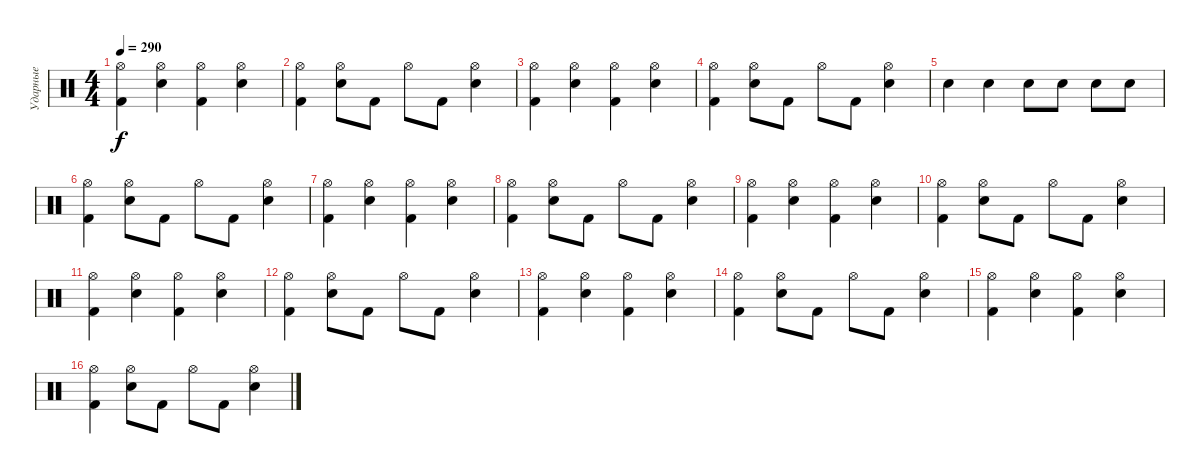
\track ("Ударные" "Ударные") {instrument percussion}
\staff {score}
\articulation defaults
\ts (4 4)
\tempo 290
\clef neutral
\ks c
("Kick (hit) 2" "Hi-Hat (open)").4{dy f} ("Snare (hit) 2" "Hi-Hat (open)").4 ("Kick (hit) 2" "Hi-Hat (open)").4 ("Snare (hit) 2" "Hi-Hat (open)").4 |
("Kick (hit) 2" "Hi-Hat (open)").4 ("Snare (hit) 2" "Hi-Hat (open)").8 "Kick (hit) 2".8 "Hi-Hat (open)".8 "Kick (hit) 2".8 ("Snare (hit) 2" "Hi-Hat (open)").4 |
("Kick (hit) 2" "Hi-Hat (open)").4 ("Snare (hit) 2" "Hi-Hat (open)").4 ("Kick (hit) 2" "Hi-Hat (open)").4 ("Snare (hit) 2" "Hi-Hat (open)").4 |
("Kick (hit) 2" "Hi-Hat (open)").4 ("Snare (hit) 2" "Hi-Hat (open)").8 "Kick (hit) 2".8 "Hi-Hat (open)".8 "Kick (hit) 2".8 ("Snare (hit) 2" "Hi-Hat (open)").4 |
"Snare (hit) 2".4 "Snare (hit) 2".4 "Snare (hit) 2".8 "Snare (hit) 2".8 "Snare (hit) 2".8 "Snare (hit) 2".8 |
("Kick (hit) 2" "Hi-Hat (open)").4 ("Snare (hit) 2" "Hi-Hat (open)").8 "Kick (hit) 2".8 "Hi-Hat (open)".8 "Kick (hit) 2".8 ("Snare (hit) 2" "Hi-Hat (open)").4 |
("Kick (hit) 2" "Hi-Hat (open)").4 ("Snare (hit) 2" "Hi-Hat (open)").4 ("Kick (hit) 2" "Hi-Hat (open)").4 ("Snare (hit) 2" "Hi-Hat (open)").4 |
("Kick (hit) 2" "Hi-Hat (open)").4 ("Snare (hit) 2" "Hi-Hat (open)").8 "Kick (hit) 2".8 "Hi-Hat (open)".8 "Kick (hit) 2".8 ("Snare (hit) 2" "Hi-Hat (open)").4 |
("Kick (hit) 2" "Hi-Hat (open)").4 ("Snare (hit) 2" "Hi-Hat (open)").4 ("Kick (hit) 2" "Hi-Hat (open)").4 ("Snare (hit) 2" "Hi-Hat (open)").4 |
("Kick (hit) 2" "Hi-Hat (open)").4 ("Snare (hit) 2" "Hi-Hat (open)").8 "Kick (hit) 2".8 "Hi-Hat (open)".8 "Kick (hit) 2".8 ("Snare (hit) 2" "Hi-Hat (open)").4 |
("Kick (hit) 2" "Hi-Hat (open)").4 ("Snare (hit) 2" "Hi-Hat (open)").4 ("Kick (hit) 2" "Hi-Hat (open)").4 ("Snare (hit) 2" "Hi-Hat (open)").4 |
("Kick (hit) 2" "Hi-Hat (open)").4 ("Snare (hit) 2" "Hi-Hat (open)").8 "Kick (hit) 2".8 "Hi-Hat (open)".8 "Kick (hit) 2".8 ("Snare (hit) 2" "Hi-Hat (open)").4 |
("Kick (hit) 2" "Hi-Hat (open)").4 ("Snare (hit) 2" "Hi-Hat (open)").4 ("Kick (hit) 2" "Hi-Hat (open)").4 ("Snare (hit) 2" "Hi-Hat (open)").4 |
("Kick (hit) 2" "Hi-Hat (open)").4 ("Snare (hit) 2" "Hi-Hat (open)").8 "Kick (hit) 2".8 "Hi-Hat (open)".8 "Kick (hit) 2".8 ("Snare (hit) 2" "Hi-Hat (open)").4 |
("Kick (hit) 2" "Hi-Hat (open)").4 ("Snare (hit) 2" "Hi-Hat (open)").4 ("Kick (hit) 2" "Hi-Hat (open)").4 ("Snare (hit) 2" "Hi-Hat (open)").4 |
("Kick (hit) 2" "Hi-Hat (open)").4 ("Snare (hit) 2" "Hi-Hat (open)").8 "Kick (hit) 2".8 "Hi-Hat (open)".8 "Kick (hit) 2".8 ("Snare (hit) 2" "Hi-Hat (open)").4
